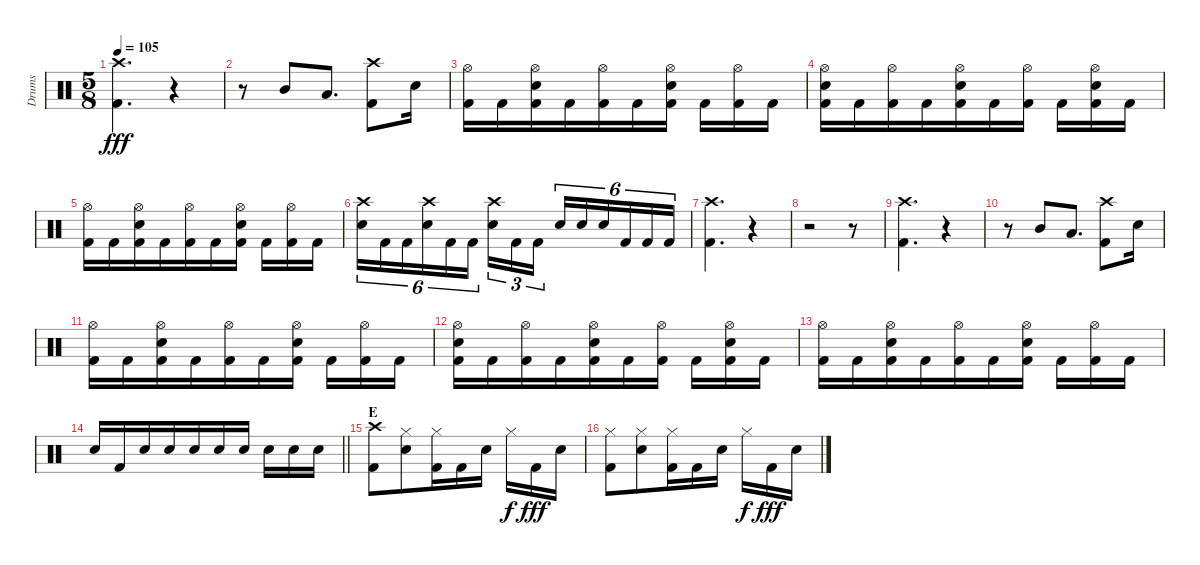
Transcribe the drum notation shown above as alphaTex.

\track ("Drums" "Drums") {instrument percussion}
\staff {score}
\articulation defaults
\ts (5 8)
\tempo 105
\clef neutral
\ks aminor
("Crash high (hit)" "Kick (hit) 2").4{d dy fff} r.4 |
r.8 "Mid Tom (hit)".8 "Low Tom (hit)".8{d} ("Crash high (hit)" "Kick (hit) 2").8{beam merge} "Snare (hit) 2".16 |
("Hi-Hat (open)" "Kick (hit) 2").16 "Kick (hit) 2".16{beam merge} ("Hi-Hat (open)" "Snare (hit) 2" "Kick (hit) 2").16 "Kick (hit) 2".16 ("Hi-Hat (open)" "Kick (hit) 2").16 "Kick (hit) 2".16{beam merge} ("Hi-Hat (open)" "Snare (hit) 2" "Kick (hit) 2").16{beam split} "Kick (hit) 2".16{beam merge} ("Hi-Hat (open)" "Kick (hit) 2").16 "Kick (hit) 2".16 |
("Hi-Hat (open)" "Snare (hit) 2" "Kick (hit) 2").16 "Kick (hit) 2".16{beam merge} ("Hi-Hat (open)" "Kick (hit) 2").16 "Kick (hit) 2".16 ("Hi-Hat (open)" "Snare (hit) 2" "Kick (hit) 2").16 "Kick (hit) 2".16{beam merge} ("Hi-Hat (open)" "Kick (hit) 2").16{beam split} "Kick (hit) 2".16{beam merge} ("Hi-Hat (open)" "Snare (hit) 2" "Kick (hit) 2").16 "Kick (hit) 2".16 |
("Hi-Hat (open)" "Kick (hit) 2").16 "Kick (hit) 2".16{beam merge} ("Hi-Hat (open)" "Snare (hit) 2" "Kick (hit) 2").16 "Kick (hit) 2".16 ("Hi-Hat (open)" "Kick (hit) 2").16 "Kick (hit) 2".16{beam merge} ("Hi-Hat (open)" "Snare (hit) 2" "Kick (hit) 2").16{beam split} "Kick (hit) 2".16{beam merge} ("Hi-Hat (open)" "Kick (hit) 2").16 "Kick (hit) 2".16 |
("Crash high (hit)" "Snare (hit) 2").16{tu (6 4)} "Kick (hit) 2".16{tu (6 4)} "Kick (hit) 2".16{tu (6 4) beam merge} ("Crash high (hit)" "Snare (hit) 2").16{tu (6 4)} "Kick (hit) 2".16{tu (6 4)} "Kick (hit) 2".16{tu (6 4)} ("Crash high (hit)" "Snare (hit) 2").16{tu (3 2)} "Kick (hit) 2".16{tu (3 2)} "Kick (hit) 2".16{tu (3 2)} "Snare (hit) 2".16{tu (6 4)} "Snare (hit) 2".16{tu (6 4)} "Snare (hit) 2".16{tu (6 4) beam merge} "Kick (hit) 2".16{tu (6 4)} "Kick (hit) 2".16{tu (6 4)} "Kick (hit) 2".16{tu (6 4)} |
("Crash high (hit)" "Kick (hit) 2").4{d} r.4 |
r.2 r.8 |
("Crash high (hit)" "Kick (hit) 2").4{d} r.4 |
r.8 "Mid Tom (hit)".8 "Low Tom (hit)".8{d} ("Crash high (hit)" "Kick (hit) 2").8{beam merge} "Snare (hit) 2".16 |
("Hi-Hat (open)" "Kick (hit) 2").16 "Kick (hit) 2".16{beam merge} ("Hi-Hat (open)" "Snare (hit) 2" "Kick (hit) 2").16 "Kick (hit) 2".16 ("Hi-Hat (open)" "Kick (hit) 2").16 "Kick (hit) 2".16{beam merge} ("Hi-Hat (open)" "Snare (hit) 2" "Kick (hit) 2").16{beam split} "Kick (hit) 2".16{beam merge} ("Hi-Hat (open)" "Kick (hit) 2").16 "Kick (hit) 2".16 |
("Hi-Hat (open)" "Snare (hit) 2" "Kick (hit) 2").16 "Kick (hit) 2".16{beam merge} ("Hi-Hat (open)" "Kick (hit) 2").16 "Kick (hit) 2".16 ("Hi-Hat (open)" "Snare (hit) 2" "Kick (hit) 2").16 "Kick (hit) 2".16{beam merge} ("Hi-Hat (open)" "Kick (hit) 2").16{beam split} "Kick (hit) 2".16{beam merge} ("Hi-Hat (open)" "Snare (hit) 2" "Kick (hit) 2").16 "Kick (hit) 2".16 |
("Hi-Hat (open)" "Kick (hit) 2").16 "Kick (hit) 2".16{beam merge} ("Hi-Hat (open)" "Snare (hit) 2" "Kick (hit) 2").16 "Kick (hit) 2".16 ("Hi-Hat (open)" "Kick (hit) 2").16 "Kick (hit) 2".16{beam merge} ("Hi-Hat (open)" "Snare (hit) 2" "Kick (hit) 2").16{beam split} "Kick (hit) 2".16{beam merge} ("Hi-Hat (open)" "Kick (hit) 2").16 "Kick (hit) 2".16 |
\barLineRight lightlight "Snare (hit) 2".16 "Kick (hit) 2".16{beam merge} "Snare (hit) 2".16 "Snare (hit) 2".16 "Snare (hit) 2".16 "Snare (hit) 2".16{beam merge} "Snare (hit) 2".16{beam split} "Snare (hit) 2".16{beam merge} "Snare (hit) 2".16 "Snare (hit) 2".16
|
\section ("" "E")
("Crash high (hit)" "Kick (hit) 2").8{beam merge} ("Hi-Hat (closed)" "Snare (hit) 2").8 ("Hi-Hat (closed)" "Kick (hit) 2").16 "Kick (hit) 2".16{beam merge} "Snare (hit) 2".16{beam split} "Hi-Hat (closed)".16{dy f beam merge} "Kick (hit) 2".16{dy fff} "Snare (hit) 2".16 |
("Hi-Hat (closed)" "Kick (hit) 2").8{beam merge} ("Hi-Hat (closed)" "Snare (hit) 2").8 ("Hi-Hat (closed)" "Kick (hit) 2").16 "Kick (hit) 2".16{beam merge} "Snare (hit) 2".16{beam split} "Hi-Hat (closed)".16{dy f beam merge} "Kick (hit) 2".16{dy fff} "Snare (hit) 2".16
